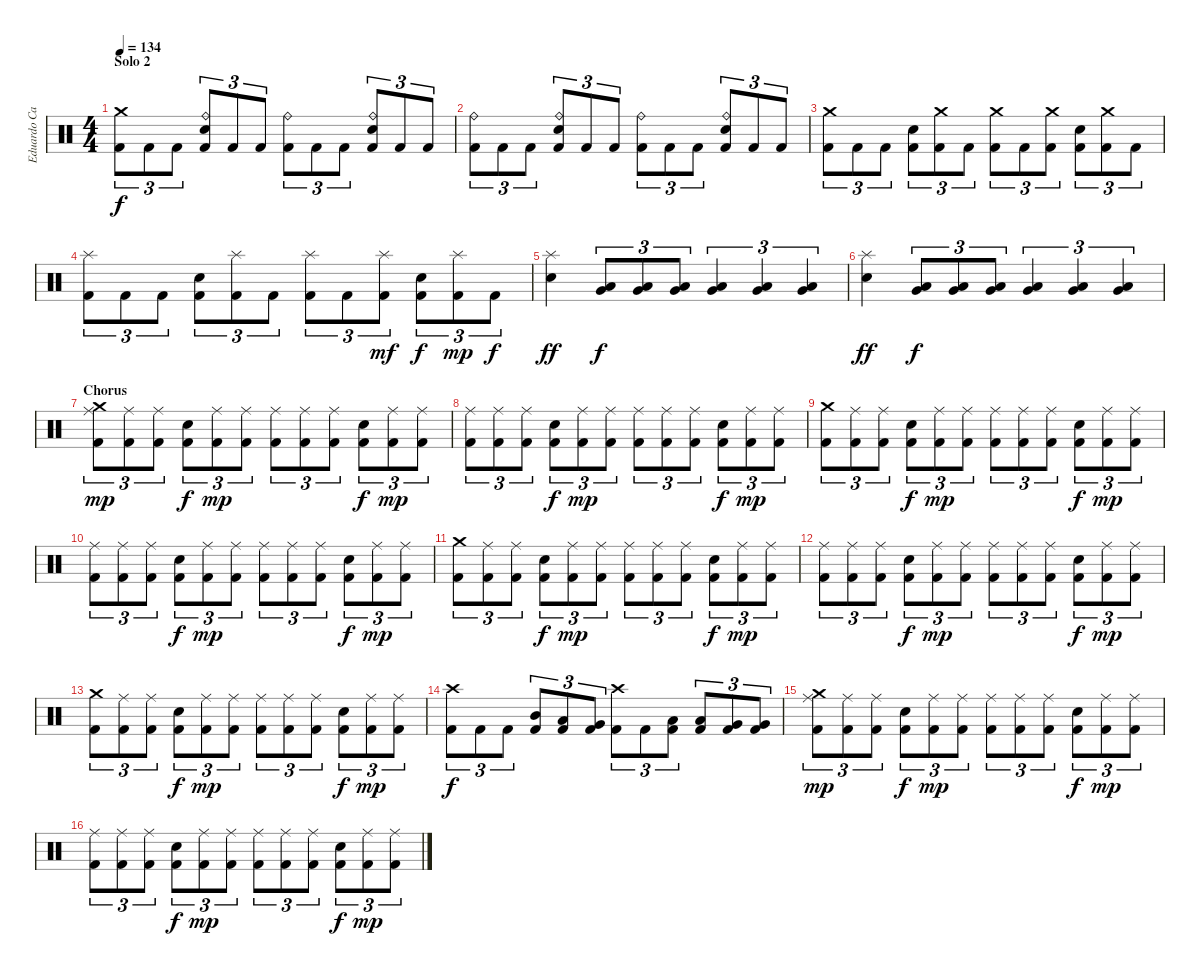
\track ("Eduardo Carrillo" "Eduardo Ca") {instrument percussion}
\staff {score}
\articulation defaults
\ts (4 4)
\section ("" "Solo 2")
\tempo 134
\clef neutral
\ks c
("Kick (hit) 2" "Crash medium (hit)").8{tu (3 2) dy f} "Kick (hit) 2".8{tu (3 2)} "Kick (hit) 2".8{tu (3 2)} ("Kick (hit) 2" "Ride (bell)" "Snare (hit) 2").8{tu (3 2)} "Kick (hit) 2".8{tu (3 2)} "Kick (hit) 2".8{tu (3 2)} ("Kick (hit) 2" "Ride (bell)").8{tu (3 2)} "Kick (hit) 2".8{tu (3 2)} "Kick (hit) 2".8{tu (3 2)} ("Kick (hit) 2" "Ride (bell)" "Snare (hit) 2").8{tu (3 2)} "Kick (hit) 2".8{tu (3 2)} "Kick (hit) 2".8{tu (3 2)} |
("Kick (hit) 2" "Ride (bell)").8{tu (3 2)} "Kick (hit) 2".8{tu (3 2)} "Kick (hit) 2".8{tu (3 2)} ("Kick (hit) 2" "Ride (bell)" "Snare (hit) 2").8{tu (3 2)} "Kick (hit) 2".8{tu (3 2)} "Kick (hit) 2".8{tu (3 2)} ("Kick (hit) 2" "Ride (bell)").8{tu (3 2)} "Kick (hit) 2".8{tu (3 2)} "Kick (hit) 2".8{tu (3 2)} ("Kick (hit) 2" "Ride (bell)" "Snare (hit) 2").8{tu (3 2)} "Kick (hit) 2".8{tu (3 2)} "Kick (hit) 2".8{tu (3 2)} |
("Kick (hit) 2" "Crash medium (hit)").8{tu (3 2)} "Kick (hit) 2".8{tu (3 2)} "Kick (hit) 2".8{tu (3 2)} ("Kick (hit) 2" "Snare (hit) 2").8{tu (3 2)} ("Kick (hit) 2" "Crash medium (hit)").8{tu (3 2)} "Kick (hit) 2".8{tu (3 2)} ("Kick (hit) 2" "Crash medium (hit)").8{tu (3 2)} "Kick (hit) 2".8{tu (3 2)} ("Kick (hit) 2" "Crash medium (hit)").8{tu (3 2)} ("Kick (hit) 2" "Snare (hit) 2").8{tu (3 2)} ("Kick (hit) 2" "Crash medium (hit)").8{tu (3 2)} "Kick (hit) 2".8{tu (3 2)} |
("Kick (hit) 2" "Splash (hit)").8{tu (3 2)} "Kick (hit) 2".8{tu (3 2)} "Kick (hit) 2".8{tu (3 2)} ("Kick (hit) 2" "Snare (hit) 2").8{tu (3 2)} ("Kick (hit) 2" "Splash (hit)").8{tu (3 2)} "Kick (hit) 2".8{tu (3 2)} ("Kick (hit) 2" "Splash (hit)").8{tu (3 2)} "Kick (hit) 2".8{tu (3 2)} ("Kick (hit) 2" "Splash (hit)").8{tu (3 2) dy mf} ("Kick (hit) 2" "Snare (hit) 2").8{tu (3 2) dy f} ("Kick (hit) 2" "Splash (hit)").8{tu (3 2) dy mp} "Kick (hit) 2".8{tu (3 2) dy f} |
("Splash (hit)" "Snare (hit) 2").4{dy ff} ("Very Low Tom (hit)" "Low Floor Tom (hit)").8{tu (3 2) dy f} ("Very Low Tom (hit)" "Low Floor Tom (hit)").8{tu (3 2)} ("Very Low Tom (hit)" "Low Floor Tom (hit)").8{tu (3 2)} ("Very Low Tom (hit)" "Low Floor Tom (hit)").4{tu (3 2)} ("Very Low Tom (hit)" "Low Floor Tom (hit)").4{tu (3 2)} ("Very Low Tom (hit)" "Low Floor Tom (hit)").4{tu (3 2)} |
("Splash (hit)" "Snare (hit) 2").4{dy ff} ("Very Low Tom (hit)" "Low Floor Tom (hit)").8{tu (3 2) dy f} ("Very Low Tom (hit)" "Low Floor Tom (hit)").8{tu (3 2)} ("Very Low Tom (hit)" "Low Floor Tom (hit)").8{tu (3 2)} ("Very Low Tom (hit)" "Low Floor Tom (hit)").4{tu (3 2)} ("Very Low Tom (hit)" "Low Floor Tom (hit)").4{tu (3 2)} ("Very Low Tom (hit)" "Low Floor Tom (hit)").4{tu (3 2)} |
\section ("" "Chorus")
("Kick (hit) 2" "Ride (middle)" "Crash medium (hit)").8{tu (3 2) dy mp} ("Kick (hit) 2" "Ride (middle)").8{tu (3 2)} ("Kick (hit) 2" "Ride (middle)").8{tu (3 2)} ("Kick (hit) 2" "Snare (hit) 2").8{tu (3 2) dy f} ("Kick (hit) 2" "Ride (middle)").8{tu (3 2) dy mp} ("Kick (hit) 2" "Ride (middle)").8{tu (3 2)} ("Kick (hit) 2" "Ride (middle)").8{tu (3 2)} ("Kick (hit) 2" "Ride (middle)").8{tu (3 2)} ("Kick (hit) 2" "Ride (middle)").8{tu (3 2)} ("Kick (hit) 2" "Snare (hit) 2").8{tu (3 2) dy f} ("Kick (hit) 2" "Ride (middle)").8{tu (3 2) dy mp} ("Kick (hit) 2" "Ride (middle)").8{tu (3 2)} |
("Kick (hit) 2" "Ride (middle)").8{tu (3 2)} ("Kick (hit) 2" "Ride (middle)").8{tu (3 2)} ("Kick (hit) 2" "Ride (middle)").8{tu (3 2)} ("Kick (hit) 2" "Snare (hit) 2").8{tu (3 2) dy f} ("Kick (hit) 2" "Ride (middle)").8{tu (3 2) dy mp} ("Kick (hit) 2" "Ride (middle)").8{tu (3 2)} ("Kick (hit) 2" "Ride (middle)").8{tu (3 2)} ("Kick (hit) 2" "Ride (middle)").8{tu (3 2)} ("Kick (hit) 2" "Ride (middle)").8{tu (3 2)} ("Kick (hit) 2" "Snare (hit) 2").8{tu (3 2) dy f} ("Kick (hit) 2" "Ride (middle)").8{tu (3 2) dy mp} ("Kick (hit) 2" "Ride (middle)").8{tu (3 2)} |
("Kick (hit) 2" "Crash medium (hit)").8{tu (3 2)} ("Kick (hit) 2" "Ride (middle)").8{tu (3 2)} ("Kick (hit) 2" "Ride (middle)").8{tu (3 2)} ("Kick (hit) 2" "Snare (hit) 2").8{tu (3 2) dy f} ("Kick (hit) 2" "Ride (middle)").8{tu (3 2) dy mp} ("Kick (hit) 2" "Ride (middle)").8{tu (3 2)} ("Kick (hit) 2" "Ride (middle)").8{tu (3 2)} ("Kick (hit) 2" "Ride (middle)").8{tu (3 2)} ("Kick (hit) 2" "Ride (middle)").8{tu (3 2)} ("Kick (hit) 2" "Snare (hit) 2").8{tu (3 2) dy f} ("Kick (hit) 2" "Ride (middle)").8{tu (3 2) dy mp} ("Kick (hit) 2" "Ride (middle)").8{tu (3 2)} |
("Kick (hit) 2" "Ride (middle)").8{tu (3 2)} ("Kick (hit) 2" "Ride (middle)").8{tu (3 2)} ("Kick (hit) 2" "Ride (middle)").8{tu (3 2)} ("Kick (hit) 2" "Snare (hit) 2").8{tu (3 2) dy f} ("Kick (hit) 2" "Ride (middle)").8{tu (3 2) dy mp} ("Kick (hit) 2" "Ride (middle)").8{tu (3 2)} ("Kick (hit) 2" "Ride (middle)").8{tu (3 2)} ("Kick (hit) 2" "Ride (middle)").8{tu (3 2)} ("Kick (hit) 2" "Ride (middle)").8{tu (3 2)} ("Kick (hit) 2" "Snare (hit) 2").8{tu (3 2) dy f} ("Kick (hit) 2" "Ride (middle)").8{tu (3 2) dy mp} ("Kick (hit) 2" "Ride (middle)").8{tu (3 2)} |
("Kick (hit) 2" "Crash medium (hit)").8{tu (3 2)} ("Kick (hit) 2" "Ride (middle)").8{tu (3 2)} ("Kick (hit) 2" "Ride (middle)").8{tu (3 2)} ("Kick (hit) 2" "Snare (hit) 2").8{tu (3 2) dy f} ("Kick (hit) 2" "Ride (middle)").8{tu (3 2) dy mp} ("Kick (hit) 2" "Ride (middle)").8{tu (3 2)} ("Kick (hit) 2" "Ride (middle)").8{tu (3 2)} ("Kick (hit) 2" "Ride (middle)").8{tu (3 2)} ("Kick (hit) 2" "Ride (middle)").8{tu (3 2)} ("Kick (hit) 2" "Snare (hit) 2").8{tu (3 2) dy f} ("Kick (hit) 2" "Ride (middle)").8{tu (3 2) dy mp} ("Kick (hit) 2" "Ride (middle)").8{tu (3 2)} |
("Kick (hit) 2" "Ride (middle)").8{tu (3 2)} ("Kick (hit) 2" "Ride (middle)").8{tu (3 2)} ("Kick (hit) 2" "Ride (middle)").8{tu (3 2)} ("Kick (hit) 2" "Snare (hit) 2").8{tu (3 2) dy f} ("Kick (hit) 2" "Ride (middle)").8{tu (3 2) dy mp} ("Kick (hit) 2" "Ride (middle)").8{tu (3 2)} ("Kick (hit) 2" "Ride (middle)").8{tu (3 2)} ("Kick (hit) 2" "Ride (middle)").8{tu (3 2)} ("Kick (hit) 2" "Ride (middle)").8{tu (3 2)} ("Kick (hit) 2" "Snare (hit) 2").8{tu (3 2) dy f} ("Kick (hit) 2" "Ride (middle)").8{tu (3 2) dy mp} ("Kick (hit) 2" "Ride (middle)").8{tu (3 2)} |
("Kick (hit) 2" "Crash medium (hit)").8{tu (3 2)} ("Kick (hit) 2" "Ride (middle)").8{tu (3 2)} ("Kick (hit) 2" "Ride (middle)").8{tu (3 2)} ("Kick (hit) 2" "Snare (hit) 2").8{tu (3 2) dy f} ("Kick (hit) 2" "Ride (middle)").8{tu (3 2) dy mp} ("Kick (hit) 2" "Ride (middle)").8{tu (3 2)} ("Kick (hit) 2" "Ride (middle)").8{tu (3 2)} ("Kick (hit) 2" "Ride (middle)").8{tu (3 2)} ("Kick (hit) 2" "Ride (middle)").8{tu (3 2)} ("Kick (hit) 2" "Snare (hit) 2").8{tu (3 2) dy f} ("Kick (hit) 2" "Ride (middle)").8{tu (3 2) dy mp} ("Kick (hit) 2" "Ride (middle)").8{tu (3 2)} |
("Kick (hit) 2" "Crash high (hit)").8{tu (3 2) dy f} "Kick (hit) 2".8{tu (3 2)} "Kick (hit) 2".8{tu (3 2)} ("Kick (hit) 2" "Mid Tom (hit)").8{tu (3 2)} ("Kick (hit) 2" "Low Tom (hit)").8{tu (3 2)} ("Kick (hit) 2" "Very Low Tom (hit)").8{tu (3 2)} ("Kick (hit) 2" "Crash high (hit)").8{tu (3 2)} "Kick (hit) 2".8{tu (3 2)} ("Kick (hit) 2" "Low Tom (hit)").8{tu (3 2)} ("Kick (hit) 2" "Low Tom (hit)").8{tu (3 2)} ("Kick (hit) 2" "Very Low Tom (hit)").8{tu (3 2)} ("Kick (hit) 2" "Very Low Tom (hit)").8{tu (3 2)} |
("Kick (hit) 2" "Ride (middle)" "Crash medium (hit)").8{tu (3 2) dy mp} ("Kick (hit) 2" "Ride (middle)").8{tu (3 2)} ("Kick (hit) 2" "Ride (middle)").8{tu (3 2)} ("Kick (hit) 2" "Snare (hit) 2").8{tu (3 2) dy f} ("Kick (hit) 2" "Ride (middle)").8{tu (3 2) dy mp} ("Kick (hit) 2" "Ride (middle)").8{tu (3 2)} ("Kick (hit) 2" "Ride (middle)").8{tu (3 2)} ("Kick (hit) 2" "Ride (middle)").8{tu (3 2)} ("Kick (hit) 2" "Ride (middle)").8{tu (3 2)} ("Kick (hit) 2" "Snare (hit) 2").8{tu (3 2) dy f} ("Kick (hit) 2" "Ride (middle)").8{tu (3 2) dy mp} ("Kick (hit) 2" "Ride (middle)").8{tu (3 2)} |
("Kick (hit) 2" "Ride (middle)").8{tu (3 2)} ("Kick (hit) 2" "Ride (middle)").8{tu (3 2)} ("Kick (hit) 2" "Ride (middle)").8{tu (3 2)} ("Kick (hit) 2" "Snare (hit) 2").8{tu (3 2) dy f} ("Kick (hit) 2" "Ride (middle)").8{tu (3 2) dy mp} ("Kick (hit) 2" "Ride (middle)").8{tu (3 2)} ("Kick (hit) 2" "Ride (middle)").8{tu (3 2)} ("Kick (hit) 2" "Ride (middle)").8{tu (3 2)} ("Kick (hit) 2" "Ride (middle)").8{tu (3 2)} ("Kick (hit) 2" "Snare (hit) 2").8{tu (3 2) dy f} ("Kick (hit) 2" "Ride (middle)").8{tu (3 2) dy mp} ("Kick (hit) 2" "Ride (middle)").8{tu (3 2)}
